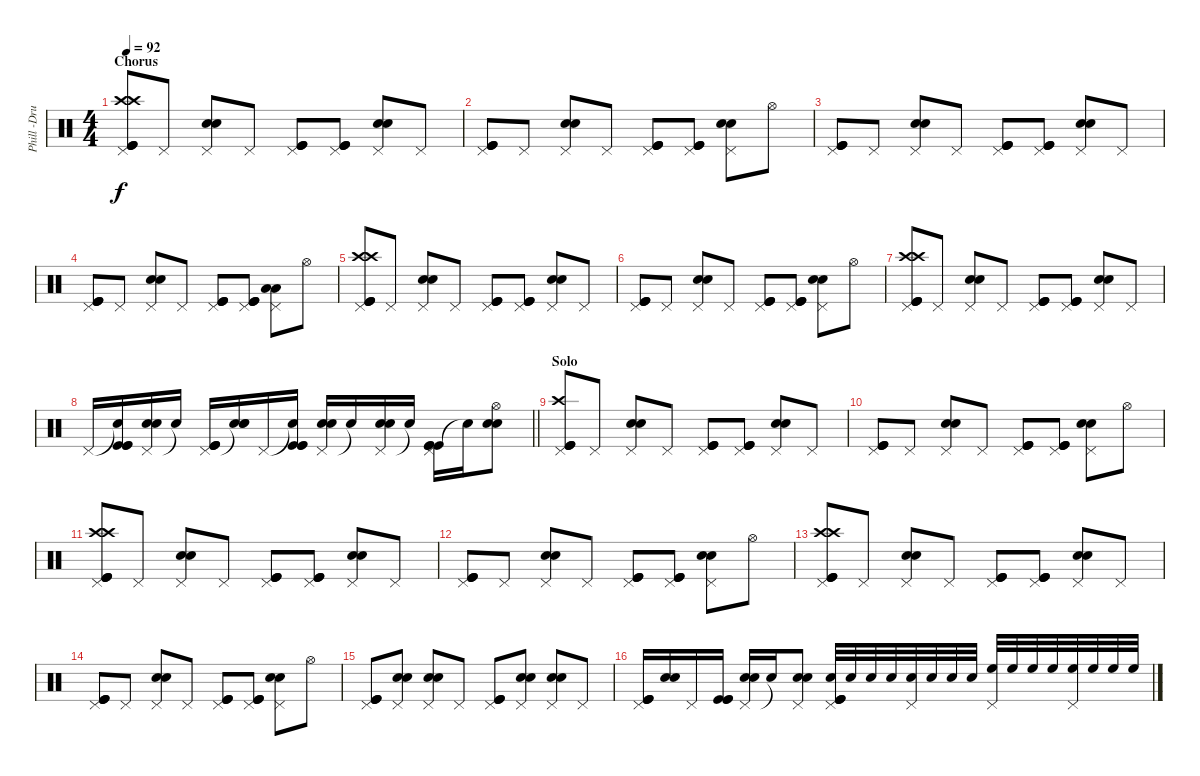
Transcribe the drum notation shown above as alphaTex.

\track ("Phill -Drums" "Phill -Dru") {instrument percussion}
\staff {score}
\articulation defaults
\ts (4 4)
\section ("" "Chorus")
\tempo 92
\clef neutral
\ks c
("Pedal Hi-Hat (hit)" "Crash high (hit)" "Crash high (hit)" "Kick (hit)" "Kick (hit)" "Kick (hit)").8{dy f} "Pedal Hi-Hat (hit)".8 ("Pedal Hi-Hat (hit)" "Snare (hit) 2" "Snare (hit) 2").8 "Pedal Hi-Hat (hit)".8 ("Pedal Hi-Hat (hit)" "Kick (hit)" "Kick (hit)" "Kick (hit)").8 ("Pedal Hi-Hat (hit)" "Kick (hit)" "Kick (hit)" "Kick (hit)").8 ("Pedal Hi-Hat (hit)" "Snare (hit) 2" "Snare (hit) 2").8 "Pedal Hi-Hat (hit)".8 |
("Pedal Hi-Hat (hit)" "Kick (hit)" "Kick (hit)" "Kick (hit)").8 "Pedal Hi-Hat (hit)".8 ("Pedal Hi-Hat (hit)" "Snare (hit) 2" "Snare (hit) 2").8 "Pedal Hi-Hat (hit)".8 ("Pedal Hi-Hat (hit)" "Kick (hit)" "Kick (hit)" "Kick (hit)").8 ("Pedal Hi-Hat (hit)" "Kick (hit)" "Kick (hit)" "Kick (hit)").8 ("Pedal Hi-Hat (hit)" "Snare (hit) 2" "Snare (hit) 2").8 "Hi-Hat (open)".8 |
("Pedal Hi-Hat (hit)" "Kick (hit)" "Kick (hit)" "Kick (hit)").8 "Pedal Hi-Hat (hit)".8 ("Pedal Hi-Hat (hit)" "Snare (hit) 2" "Snare (hit) 2").8 "Pedal Hi-Hat (hit)".8 ("Pedal Hi-Hat (hit)" "Kick (hit)" "Kick (hit)" "Kick (hit)").8 ("Pedal Hi-Hat (hit)" "Kick (hit)" "Kick (hit)" "Kick (hit)").8 ("Pedal Hi-Hat (hit)" "Snare (hit) 2" "Snare (hit) 2").8 "Pedal Hi-Hat (hit)".8 |
("Pedal Hi-Hat (hit)" "Kick (hit)" "Kick (hit)" "Kick (hit)").8 "Pedal Hi-Hat (hit)".8 ("Pedal Hi-Hat (hit)" "Snare (hit) 2" "Snare (hit) 2").8 "Pedal Hi-Hat (hit)".8 ("Pedal Hi-Hat (hit)" "Kick (hit)" "Kick (hit)" "Kick (hit)").8 ("Pedal Hi-Hat (hit)" "Kick (hit)" "Kick (hit)" "Kick (hit)").8 ("Pedal Hi-Hat (hit)" "Low Floor Tom (hit)" "Low Floor Tom (hit)").8 "Hi-Hat (open)".8 |
("Pedal Hi-Hat (hit)" "Crash high (hit)" "Crash high (hit)" "Kick (hit)" "Kick (hit)" "Kick (hit)").8 "Pedal Hi-Hat (hit)".8 ("Pedal Hi-Hat (hit)" "Snare (hit) 2" "Snare (hit) 2").8 "Pedal Hi-Hat (hit)".8 ("Pedal Hi-Hat (hit)" "Kick (hit)" "Kick (hit)" "Kick (hit)").8 ("Pedal Hi-Hat (hit)" "Kick (hit)" "Kick (hit)" "Kick (hit)").8 ("Pedal Hi-Hat (hit)" "Snare (hit) 2" "Snare (hit) 2").8 "Pedal Hi-Hat (hit)".8 |
("Pedal Hi-Hat (hit)" "Kick (hit)" "Kick (hit)" "Kick (hit)").8 "Pedal Hi-Hat (hit)".8 ("Pedal Hi-Hat (hit)" "Snare (hit) 2" "Snare (hit) 2").8 "Pedal Hi-Hat (hit)".8 ("Pedal Hi-Hat (hit)" "Kick (hit)" "Kick (hit)" "Kick (hit)").8 ("Pedal Hi-Hat (hit)" "Kick (hit)" "Kick (hit)" "Kick (hit)").8 ("Pedal Hi-Hat (hit)" "Snare (hit) 2" "Snare (hit) 2").8 "Hi-Hat (open)".8 |
("Pedal Hi-Hat (hit)" "Crash high (hit)" "Crash high (hit)" "Kick (hit)" "Kick (hit)" "Kick (hit)").8 "Pedal Hi-Hat (hit)".8 ("Pedal Hi-Hat (hit)" "Snare (hit) 2" "Snare (hit) 2").8 "Pedal Hi-Hat (hit)".8 ("Pedal Hi-Hat (hit)" "Kick (hit)" "Kick (hit)" "Kick (hit)").8 ("Pedal Hi-Hat (hit)" "Kick (hit)" "Kick (hit)" "Kick (hit)").8 ("Pedal Hi-Hat (hit)" "Snare (hit) 2" "Snare (hit) 2").8 "Pedal Hi-Hat (hit)".8 |
\barLineRight lightlight "Pedal Hi-Hat (hit)".16
("Snare (hit)"{t} "Kick (hit)" "Kick (hit)" "Kick (hit)").16 ("Pedal Hi-Hat (hit)" "Snare (hit) 2" "Snare (hit) 2").16 "Snare (hit)"{t}.16 ("Pedal Hi-Hat (hit)" "Kick (hit)" "Kick (hit)" "Kick (hit)").16 ("Snare (hit)"{t} "Snare (hit) 2" "Snare (hit) 2").16 "Pedal Hi-Hat (hit)".16 ("Snare (hit)"{t} "Kick (hit)" "Kick (hit)" "Kick (hit)").16 ("Pedal Hi-Hat (hit)" "Snare (hit) 2" "Snare (hit) 2").16 "Snare (hit)"{t}.16 ("Pedal Hi-Hat (hit)" "Snare (hit) 2" "Snare (hit) 2").16 "Snare (hit)"{t}.16 ("Pedal Hi-Hat (hit)" "Kick (hit)" "Kick (hit)" "Kick (hit)").16 "Snare (hit)"{t}.16 ("Hi-Hat (open)" "Snare (hit) 2" "Snare (hit) 2").8 |
\section ("" "Solo")
("Pedal Hi-Hat (hit)" "Crash high (hit)" "Kick (hit)" "Kick (hit)" "Kick (hit)").8 "Pedal Hi-Hat (hit)".8 ("Pedal Hi-Hat (hit)" "Snare (hit) 2" "Snare (hit) 2").8 "Pedal Hi-Hat (hit)".8 ("Pedal Hi-Hat (hit)" "Kick (hit)" "Kick (hit)" "Kick (hit)").8 ("Pedal Hi-Hat (hit)" "Kick (hit)" "Kick (hit)" "Kick (hit)").8 ("Pedal Hi-Hat (hit)" "Snare (hit) 2" "Snare (hit) 2").8 "Pedal Hi-Hat (hit)".8 |
("Pedal Hi-Hat (hit)" "Kick (hit)" "Kick (hit)" "Kick (hit)").8 "Pedal Hi-Hat (hit)".8 ("Pedal Hi-Hat (hit)" "Snare (hit) 2" "Snare (hit) 2").8 "Pedal Hi-Hat (hit)".8 ("Pedal Hi-Hat (hit)" "Kick (hit)" "Kick (hit)" "Kick (hit)").8 ("Pedal Hi-Hat (hit)" "Kick (hit)" "Kick (hit)" "Kick (hit)").8 ("Pedal Hi-Hat (hit)" "Snare (hit) 2" "Snare (hit) 2").8 "Hi-Hat (open)".8 |
("Pedal Hi-Hat (hit)" "Crash high (hit)" "Crash high (hit)" "Kick (hit)" "Kick (hit)" "Kick (hit)").8 "Pedal Hi-Hat (hit)".8 ("Pedal Hi-Hat (hit)" "Snare (hit) 2" "Snare (hit) 2").8 "Pedal Hi-Hat (hit)".8 ("Pedal Hi-Hat (hit)" "Kick (hit)" "Kick (hit)" "Kick (hit)").8 ("Pedal Hi-Hat (hit)" "Kick (hit)" "Kick (hit)" "Kick (hit)").8 ("Pedal Hi-Hat (hit)" "Snare (hit) 2" "Snare (hit) 2").8 "Pedal Hi-Hat (hit)".8 |
("Pedal Hi-Hat (hit)" "Kick (hit)" "Kick (hit)" "Kick (hit)").8 "Pedal Hi-Hat (hit)".8 ("Pedal Hi-Hat (hit)" "Snare (hit) 2" "Snare (hit) 2").8 "Pedal Hi-Hat (hit)".8 ("Pedal Hi-Hat (hit)" "Kick (hit)" "Kick (hit)" "Kick (hit)").8 ("Pedal Hi-Hat (hit)" "Kick (hit)" "Kick (hit)" "Kick (hit)").8 ("Pedal Hi-Hat (hit)" "Snare (hit) 2" "Snare (hit) 2").8 "Hi-Hat (open)".8 |
("Pedal Hi-Hat (hit)" "Crash high (hit)" "Crash high (hit)" "Kick (hit)" "Kick (hit)" "Kick (hit)").8 "Pedal Hi-Hat (hit)".8 ("Pedal Hi-Hat (hit)" "Snare (hit) 2" "Snare (hit) 2").8 "Pedal Hi-Hat (hit)".8 ("Pedal Hi-Hat (hit)" "Kick (hit)" "Kick (hit)" "Kick (hit)").8 ("Pedal Hi-Hat (hit)" "Kick (hit)" "Kick (hit)" "Kick (hit)").8 ("Pedal Hi-Hat (hit)" "Snare (hit) 2" "Snare (hit) 2").8 "Pedal Hi-Hat (hit)".8 |
("Pedal Hi-Hat (hit)" "Kick (hit)" "Kick (hit)" "Kick (hit)").8 "Pedal Hi-Hat (hit)".8 ("Pedal Hi-Hat (hit)" "Snare (hit) 2" "Snare (hit) 2").8 "Pedal Hi-Hat (hit)".8 ("Pedal Hi-Hat (hit)" "Kick (hit)" "Kick (hit)" "Kick (hit)").8 ("Pedal Hi-Hat (hit)" "Kick (hit)" "Kick (hit)" "Kick (hit)").8 ("Pedal Hi-Hat (hit)" "Snare (hit) 2" "Snare (hit) 2").8 "Hi-Hat (open)".8 |
("Pedal Hi-Hat (hit)" "Kick (hit)" "Kick (hit)" "Kick (hit)").8 ("Pedal Hi-Hat (hit)" "Snare (hit) 2" "Snare (hit) 2").8 ("Pedal Hi-Hat (hit)" "Snare (hit) 2" "Snare (hit) 2").8 "Pedal Hi-Hat (hit)".8 ("Pedal Hi-Hat (hit)" "Kick (hit)" "Kick (hit)" "Kick (hit)").8 ("Pedal Hi-Hat (hit)" "Snare (hit) 2" "Snare (hit) 2").8 ("Pedal Hi-Hat (hit)" "Snare (hit) 2" "Snare (hit) 2").8 "Pedal Hi-Hat (hit)".8 |
("Pedal Hi-Hat (hit)" "Kick (hit)" "Kick (hit)" "Kick (hit)").16 ("Snare (hit) 2" "Snare (hit) 2").16 "Pedal Hi-Hat (hit)".16 ("Kick (hit)" "Kick (hit)" "Kick (hit)").16 ("Pedal Hi-Hat (hit)" "Snare (hit) 2" "Snare (hit) 2").16 "Snare (hit)"{t}.16 ("Pedal Hi-Hat (hit)" "Snare (hit) 2" "Snare (hit) 2").8 ("Pedal Hi-Hat (hit)" "Snare (hit) 2" "Kick (hit)" "Kick (hit)" "Kick (hit)").32 "Snare (hit) 2".32 "Snare (hit) 2".32 "Snare (hit) 2".32 ("Pedal Hi-Hat (hit)" "Snare (hit) 2").32 "Snare (hit) 2".32 "Snare (hit) 2".32 "Snare (hit) 2".32 ("Pedal Hi-Hat (hit)" "High Floor Tom (hit)").32 "High Floor Tom (hit)".32 "High Floor Tom (hit)".32 "High Floor Tom (hit)".32 ("Pedal Hi-Hat (hit)" "High Floor Tom (hit)").32 "High Floor Tom (hit)".32 "High Floor Tom (hit)".32 "High Floor Tom (hit)".32
